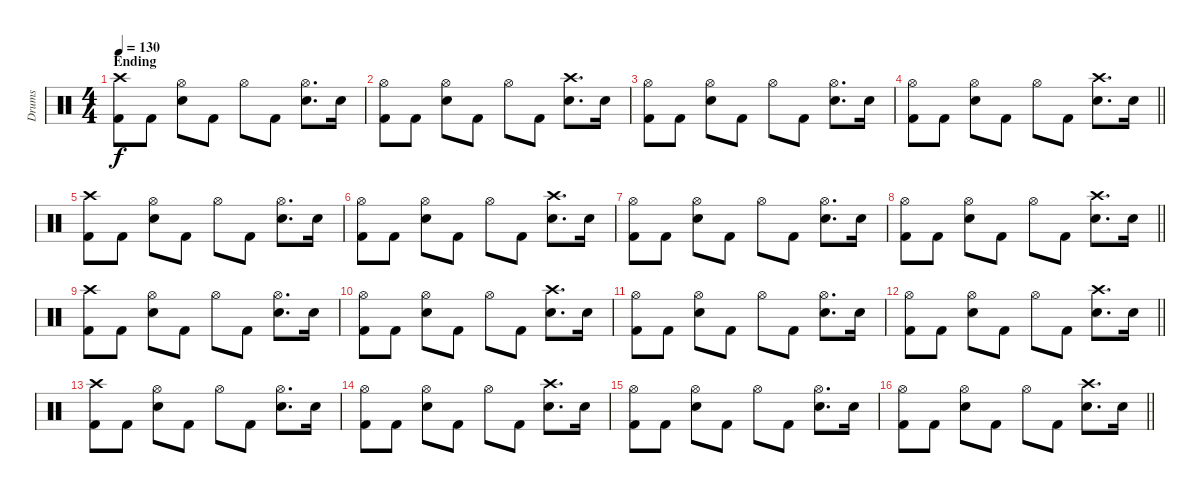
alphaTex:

\track ("Drums" "Drums") {instrument percussion}
\staff {score}
\articulation defaults
\ts (4 4)
\section ("" "Ending")
\tempo 130
\clef neutral
\ks c
("Crash high (hit)" "Kick (hit) 2").8{dy f} "Kick (hit) 2".8 ("Hi-Hat (open)" "Electric Snare (hit)").8 "Kick (hit) 2".8 "Hi-Hat (open)".8 "Kick (hit) 2".8 ("Hi-Hat (open)" "Electric Snare (hit)").8{d} "Electric Snare (hit)".16 |
("Hi-Hat (open)" "Kick (hit) 2").8 "Kick (hit) 2".8 ("Hi-Hat (open)" "Electric Snare (hit)").8 "Kick (hit) 2".8 "Hi-Hat (open)".8 "Kick (hit) 2".8 ("Crash high (hit)" "Electric Snare (hit)").8{d} "Electric Snare (hit)".16 |
("Hi-Hat (open)" "Kick (hit) 2").8 "Kick (hit) 2".8 ("Hi-Hat (open)" "Electric Snare (hit)").8 "Kick (hit) 2".8 "Hi-Hat (open)".8 "Kick (hit) 2".8 ("Hi-Hat (open)" "Electric Snare (hit)").8{d} "Electric Snare (hit)".16 |
\barLineRight lightlight
("Hi-Hat (open)" "Kick (hit) 2").8 "Kick (hit) 2".8 ("Hi-Hat (open)" "Electric Snare (hit)").8 "Kick (hit) 2".8 "Hi-Hat (open)".8 "Kick (hit) 2".8 ("Crash high (hit)" "Electric Snare (hit)").8{d} "Electric Snare (hit)".16 |
("Crash high (hit)" "Kick (hit) 2").8 "Kick (hit) 2".8 ("Hi-Hat (open)" "Electric Snare (hit)").8 "Kick (hit) 2".8 "Hi-Hat (open)".8 "Kick (hit) 2".8 ("Hi-Hat (open)" "Electric Snare (hit)").8{d} "Electric Snare (hit)".16 |
("Hi-Hat (open)" "Kick (hit) 2").8 "Kick (hit) 2".8 ("Hi-Hat (open)" "Electric Snare (hit)").8 "Kick (hit) 2".8 "Hi-Hat (open)".8 "Kick (hit) 2".8 ("Crash high (hit)" "Electric Snare (hit)").8{d} "Electric Snare (hit)".16 |
("Hi-Hat (open)" "Kick (hit) 2").8 "Kick (hit) 2".8 ("Hi-Hat (open)" "Electric Snare (hit)").8 "Kick (hit) 2".8 "Hi-Hat (open)".8 "Kick (hit) 2".8 ("Hi-Hat (open)" "Electric Snare (hit)").8{d} "Electric Snare (hit)".16 |
\barLineRight lightlight
("Hi-Hat (open)" "Kick (hit) 2").8 "Kick (hit) 2".8 ("Hi-Hat (open)" "Electric Snare (hit)").8 "Kick (hit) 2".8 "Hi-Hat (open)".8 "Kick (hit) 2".8 ("Crash high (hit)" "Electric Snare (hit)").8{d} "Electric Snare (hit)".16 |
("Crash high (hit)" "Kick (hit) 2").8 "Kick (hit) 2".8 ("Hi-Hat (open)" "Electric Snare (hit)").8 "Kick (hit) 2".8 "Hi-Hat (open)".8 "Kick (hit) 2".8 ("Hi-Hat (open)" "Electric Snare (hit)").8{d} "Electric Snare (hit)".16 |
("Hi-Hat (open)" "Kick (hit) 2").8 "Kick (hit) 2".8 ("Hi-Hat (open)" "Electric Snare (hit)").8 "Kick (hit) 2".8 "Hi-Hat (open)".8 "Kick (hit) 2".8 ("Crash high (hit)" "Electric Snare (hit)").8{d} "Electric Snare (hit)".16 |
("Hi-Hat (open)" "Kick (hit) 2").8 "Kick (hit) 2".8 ("Hi-Hat (open)" "Electric Snare (hit)").8 "Kick (hit) 2".8 "Hi-Hat (open)".8 "Kick (hit) 2".8 ("Hi-Hat (open)" "Electric Snare (hit)").8{d} "Electric Snare (hit)".16 |
\barLineRight lightlight
("Hi-Hat (open)" "Kick (hit) 2").8 "Kick (hit) 2".8 ("Hi-Hat (open)" "Electric Snare (hit)").8 "Kick (hit) 2".8 "Hi-Hat (open)".8 "Kick (hit) 2".8 ("Crash high (hit)" "Electric Snare (hit)").8{d} "Electric Snare (hit)".16 |
("Crash high (hit)" "Kick (hit) 2").8 "Kick (hit) 2".8 ("Hi-Hat (open)" "Electric Snare (hit)").8 "Kick (hit) 2".8 "Hi-Hat (open)".8 "Kick (hit) 2".8 ("Hi-Hat (open)" "Electric Snare (hit)").8{d} "Electric Snare (hit)".16 |
("Hi-Hat (open)" "Kick (hit) 2").8 "Kick (hit) 2".8 ("Hi-Hat (open)" "Electric Snare (hit)").8 "Kick (hit) 2".8 "Hi-Hat (open)".8 "Kick (hit) 2".8 ("Crash high (hit)" "Electric Snare (hit)").8{d} "Electric Snare (hit)".16 |
("Hi-Hat (open)" "Kick (hit) 2").8 "Kick (hit) 2".8 ("Hi-Hat (open)" "Electric Snare (hit)").8 "Kick (hit) 2".8 "Hi-Hat (open)".8 "Kick (hit) 2".8 ("Hi-Hat (open)" "Electric Snare (hit)").8{d} "Electric Snare (hit)".16 |
\barLineRight lightlight
("Hi-Hat (open)" "Kick (hit) 2").8 "Kick (hit) 2".8 ("Hi-Hat (open)" "Electric Snare (hit)").8 "Kick (hit) 2".8 "Hi-Hat (open)".8 "Kick (hit) 2".8 ("Crash high (hit)" "Electric Snare (hit)").8{d} "Electric Snare (hit)".16
